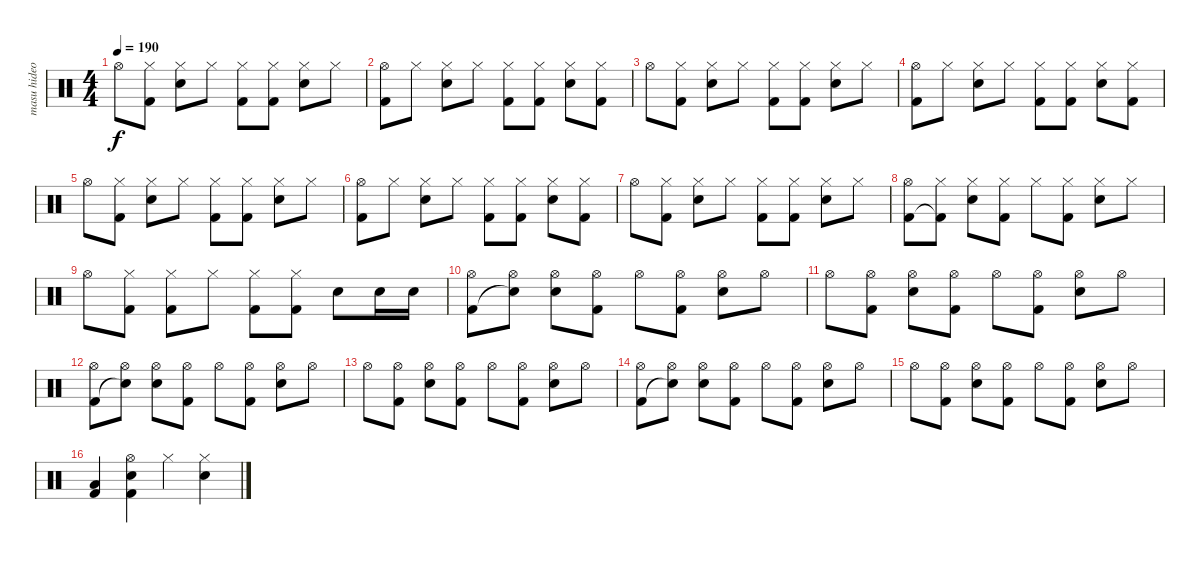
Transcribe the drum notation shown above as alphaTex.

\track ("masu hideo" "masu hideo") {instrument percussion}
\staff {score}
\articulation defaults
\ts (4 4)
\tempo 190
\clef neutral
\ks c "Hi-Hat (open)".8{dy f}
("Hi-Hat (closed)" "Kick (hit) 2").8 ("Hi-Hat (closed)" "Snare (hit) 2").8 "Hi-Hat (closed)".8 ("Hi-Hat (closed)" "Kick (hit) 2").8 ("Hi-Hat (closed)" "Kick (hit) 2").8 ("Hi-Hat (closed)" "Snare (hit) 2").8 "Hi-Hat (closed)".8 |
("Hi-Hat (open)" "Kick (hit) 2").8 "Hi-Hat (closed)".8 ("Hi-Hat (closed)" "Snare (hit) 2").8 "Hi-Hat (closed)".8 ("Hi-Hat (closed)" "Kick (hit) 2").8 ("Hi-Hat (closed)" "Kick (hit) 2").8 ("Hi-Hat (closed)" "Snare (hit) 2").8 ("Hi-Hat (closed)" "Kick (hit) 2").8 |
"Hi-Hat (open)".8 ("Hi-Hat (closed)" "Kick (hit) 2").8 ("Hi-Hat (closed)" "Snare (hit) 2").8 "Hi-Hat (closed)".8 ("Hi-Hat (closed)" "Kick (hit) 2").8 ("Hi-Hat (closed)" "Kick (hit) 2").8 ("Hi-Hat (closed)" "Snare (hit) 2").8 "Hi-Hat (closed)".8 |
("Hi-Hat (open)" "Kick (hit) 2").8 "Hi-Hat (closed)".8 ("Hi-Hat (closed)" "Snare (hit) 2").8 "Hi-Hat (closed)".8 ("Hi-Hat (closed)" "Kick (hit) 2").8 ("Hi-Hat (closed)" "Kick (hit) 2").8 ("Hi-Hat (closed)" "Snare (hit) 2").8 ("Hi-Hat (closed)" "Kick (hit) 2").8 |
"Hi-Hat (open)".8 ("Hi-Hat (closed)" "Kick (hit) 2").8 ("Hi-Hat (closed)" "Snare (hit) 2").8 "Hi-Hat (closed)".8 ("Hi-Hat (closed)" "Kick (hit) 2").8 ("Hi-Hat (closed)" "Kick (hit) 2").8 ("Hi-Hat (closed)" "Snare (hit) 2").8 "Hi-Hat (closed)".8 |
("Hi-Hat (open)" "Kick (hit) 2").8 "Hi-Hat (closed)".8 ("Hi-Hat (closed)" "Snare (hit) 2").8 "Hi-Hat (closed)".8 ("Hi-Hat (closed)" "Kick (hit) 2").8 ("Hi-Hat (closed)" "Kick (hit) 2").8 ("Hi-Hat (closed)" "Snare (hit) 2").8 ("Hi-Hat (closed)" "Kick (hit) 2").8 |
"Hi-Hat (open)".8 ("Hi-Hat (closed)" "Kick (hit) 2").8 ("Hi-Hat (closed)" "Snare (hit) 2").8 "Hi-Hat (closed)".8 ("Hi-Hat (closed)" "Kick (hit) 2").8 ("Hi-Hat (closed)" "Kick (hit) 2").8 ("Hi-Hat (closed)" "Snare (hit) 2").8 "Hi-Hat (closed)".8 |
("Hi-Hat (open)" "Kick (hit) 2").8 ("Hi-Hat (closed)" "Kick (hit) 2"{t}).8 ("Hi-Hat (closed)" "Snare (hit) 2").8 ("Hi-Hat (closed)" "Kick (hit) 2").8 "Hi-Hat (closed)".8 ("Hi-Hat (closed)" "Kick (hit) 2").8 ("Hi-Hat (closed)" "Snare (hit) 2").8 "Hi-Hat (closed)".8 |
"Hi-Hat (open)".8 ("Hi-Hat (closed)" "Kick (hit) 2").8 ("Hi-Hat (closed)" "Kick (hit) 2").8 "Hi-Hat (closed)".8 ("Hi-Hat (closed)" "Kick (hit) 2").8 ("Hi-Hat (closed)" "Kick (hit) 2").8 "Snare (hit) 2".8 "Snare (hit) 2".16 "Snare (hit) 2".16 |
("Hi-Hat (open)" "Kick (hit) 2").8 ("Hi-Hat (open)" "Snare (hit)"{t}).8 ("Hi-Hat (open)" "Snare (hit) 2").8 ("Hi-Hat (open)" "Kick (hit) 2").8 "Hi-Hat (open)".8 ("Hi-Hat (open)" "Kick (hit) 2").8 ("Hi-Hat (open)" "Snare (hit) 2").8 "Hi-Hat (open)".8 |
"Hi-Hat (open)".8 ("Hi-Hat (open)" "Kick (hit) 2").8 ("Hi-Hat (open)" "Snare (hit) 2").8 ("Hi-Hat (open)" "Kick (hit) 2").8 "Hi-Hat (open)".8 ("Hi-Hat (open)" "Kick (hit) 2").8 ("Hi-Hat (open)" "Snare (hit) 2").8 "Hi-Hat (open)".8 |
("Hi-Hat (open)" "Kick (hit) 2").8 ("Hi-Hat (open)" "Snare (hit)"{t}).8 ("Hi-Hat (open)" "Snare (hit) 2").8 ("Hi-Hat (open)" "Kick (hit) 2").8 "Hi-Hat (open)".8 ("Hi-Hat (open)" "Kick (hit) 2").8 ("Hi-Hat (open)" "Snare (hit) 2").8 "Hi-Hat (open)".8 |
"Hi-Hat (open)".8 ("Hi-Hat (open)" "Kick (hit) 2").8 ("Hi-Hat (open)" "Snare (hit) 2").8 ("Hi-Hat (open)" "Kick (hit) 2").8 "Hi-Hat (open)".8 ("Hi-Hat (open)" "Kick (hit) 2").8 ("Hi-Hat (open)" "Snare (hit) 2").8 "Hi-Hat (open)".8 |
("Hi-Hat (open)" "Kick (hit) 2").8 ("Hi-Hat (open)" "Snare (hit)"{t}).8 ("Hi-Hat (open)" "Snare (hit) 2").8 ("Hi-Hat (open)" "Kick (hit) 2").8 "Hi-Hat (open)".8 ("Hi-Hat (open)" "Kick (hit) 2").8 ("Hi-Hat (open)" "Snare (hit) 2").8 "Hi-Hat (open)".8 |
"Hi-Hat (open)".8 ("Hi-Hat (open)" "Kick (hit) 2").8 ("Hi-Hat (open)" "Snare (hit) 2").8 ("Hi-Hat (open)" "Kick (hit) 2").8 "Hi-Hat (open)".8 ("Hi-Hat (open)" "Kick (hit) 2").8 ("Hi-Hat (open)" "Snare (hit) 2").8 "Hi-Hat (open)".8 |
("Low Floor Tom (hit)" "Kick (hit) 2").4 ("Hi-Hat (open)" "Snare (hit) 2" "Kick (hit) 2").4 "Hi-Hat (closed)".4 ("Hi-Hat (closed)" "Snare (hit) 2").4
